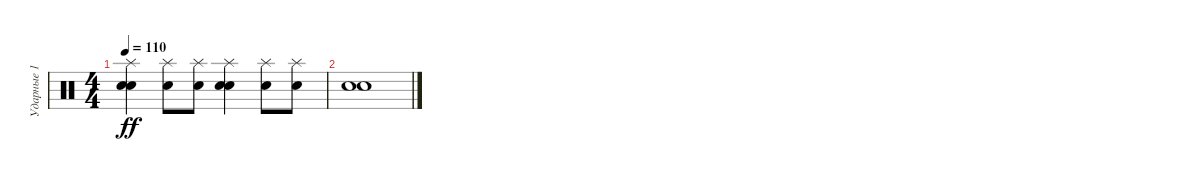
\track ("Ударные 1" "Ударные 1") {instrument percussion}
\staff {score}
\articulation defaults
\ts (4 4)
\tempo 110
\clef neutral
\ks c
("Snare (hit) 2" "Electric Snare (hit)" "Splash (hit)").4{dy ff} ("Electric Snare (hit)" "Splash (hit)").8 ("Electric Snare (hit)" "Splash (hit)").8 ("Snare (hit) 2" "Electric Snare (hit)" "Splash (hit)").4 ("Electric Snare (hit)" "Splash (hit)").8 ("Electric Snare (hit)" "Splash (hit)").8 |
("Snare (hit) 2" "Electric Snare (hit)").1
